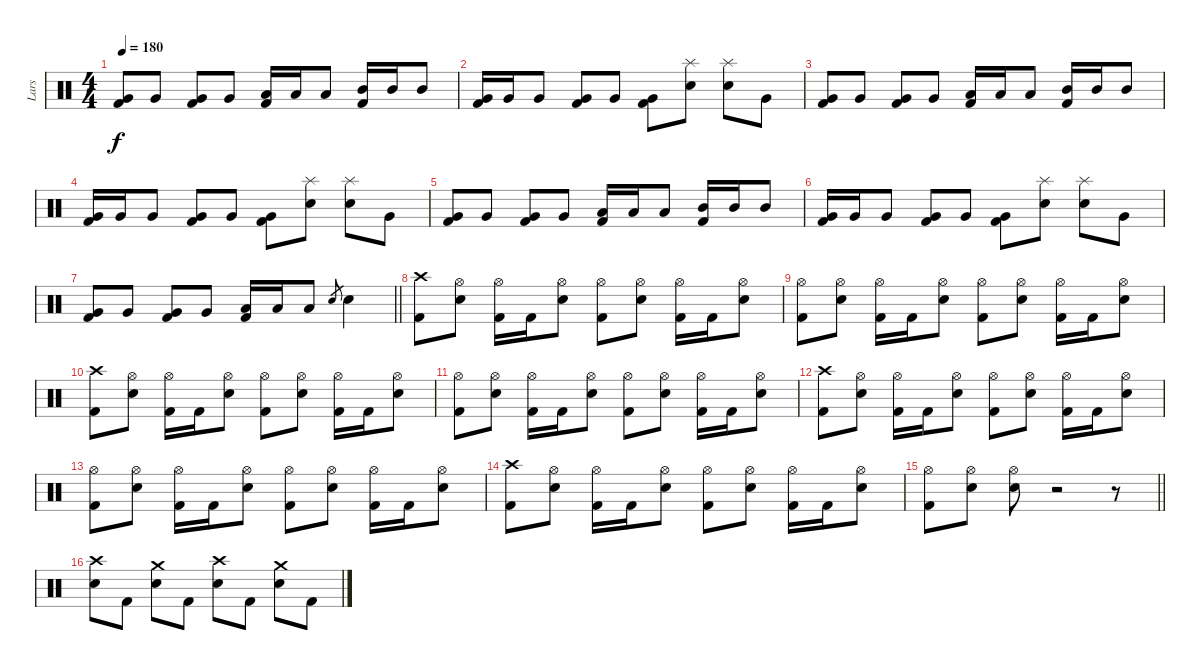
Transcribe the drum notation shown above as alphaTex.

\track ("Lars" "Lars") {instrument percussion}
\staff {score}
\articulation defaults
\ts (4 4)
\tempo 180
\clef neutral
\ks c
("Very Low Tom (hit)" "Kick (hit) 2").8{dy f} "Very Low Tom (hit)".8 ("Very Low Tom (hit)" "Kick (hit) 2").8 "Very Low Tom (hit)".8 ("Low Tom (hit)" "Kick (hit) 2").16 "Low Tom (hit)".16 "Low Tom (hit)".8 ("Mid Tom (hit)" "Kick (hit) 2").16 "Mid Tom (hit)".16 "Mid Tom (hit)".8 |
("Very Low Tom (hit)" "Kick (hit) 2").16 "Very Low Tom (hit)".16 "Very Low Tom (hit)".8 ("Very Low Tom (hit)" "Kick (hit) 2").8 "Very Low Tom (hit)".8 ("Very Low Tom (hit)" "Kick (hit) 2").8 ("Splash (hit)" "Electric Snare (hit)").8 ("Splash (hit)" "Electric Snare (hit)").8 "Very Low Tom (hit)".8 |
("Very Low Tom (hit)" "Kick (hit) 2").8 "Very Low Tom (hit)".8 ("Very Low Tom (hit)" "Kick (hit) 2").8 "Very Low Tom (hit)".8 ("Low Tom (hit)" "Kick (hit) 2").16 "Low Tom (hit)".16 "Low Tom (hit)".8 ("Mid Tom (hit)" "Kick (hit) 2").16 "Mid Tom (hit)".16 "Mid Tom (hit)".8 |
("Very Low Tom (hit)" "Kick (hit) 2").16 "Very Low Tom (hit)".16 "Very Low Tom (hit)".8 ("Very Low Tom (hit)" "Kick (hit) 2").8 "Very Low Tom (hit)".8 ("Very Low Tom (hit)" "Kick (hit) 2").8 ("Splash (hit)" "Electric Snare (hit)").8 ("Splash (hit)" "Electric Snare (hit)").8 "Very Low Tom (hit)".8 |
("Very Low Tom (hit)" "Kick (hit) 2").8 "Very Low Tom (hit)".8 ("Very Low Tom (hit)" "Kick (hit) 2").8 "Very Low Tom (hit)".8 ("Low Tom (hit)" "Kick (hit) 2").16 "Low Tom (hit)".16 "Low Tom (hit)".8 ("Mid Tom (hit)" "Kick (hit) 2").16 "Mid Tom (hit)".16 "Mid Tom (hit)".8 |
("Very Low Tom (hit)" "Kick (hit) 2").16 "Very Low Tom (hit)".16 "Very Low Tom (hit)".8 ("Very Low Tom (hit)" "Kick (hit) 2").8 "Very Low Tom (hit)".8 ("Very Low Tom (hit)" "Kick (hit) 2").8 ("Splash (hit)" "Electric Snare (hit)").8 ("Splash (hit)" "Electric Snare (hit)").8 "Very Low Tom (hit)".8 |
\barLineRight lightlight
("Very Low Tom (hit)" "Kick (hit) 2").8 "Very Low Tom (hit)".8 ("Very Low Tom (hit)" "Kick (hit) 2").8 "Very Low Tom (hit)".8 ("Low Tom (hit)" "Kick (hit) 2").16 "Low Tom (hit)".16 "Low Tom (hit)".8 "Electric Snare (hit)".8{gr} "Electric Snare (hit)".4 |
\section ("" "")
("Crash high (hit)" "Kick (hit) 2").8 ("Hi-Hat (open)" "Electric Snare (hit)").8 ("Hi-Hat (open)" "Kick (hit) 2").16 "Kick (hit) 2".16 ("Hi-Hat (open)" "Electric Snare (hit)").8 ("Hi-Hat (open)" "Kick (hit) 2").8 ("Hi-Hat (open)" "Electric Snare (hit)").8 ("Hi-Hat (open)" "Kick (hit) 2").16 "Kick (hit) 2".16 ("Hi-Hat (open)" "Electric Snare (hit)").8 |
("Hi-Hat (open)" "Kick (hit) 2").8 ("Hi-Hat (open)" "Electric Snare (hit)").8 ("Hi-Hat (open)" "Kick (hit) 2").16 "Kick (hit) 2".16 ("Hi-Hat (open)" "Electric Snare (hit)").8 ("Hi-Hat (open)" "Kick (hit) 2").8 ("Hi-Hat (open)" "Electric Snare (hit)").8 ("Hi-Hat (open)" "Kick (hit) 2").16 "Kick (hit) 2".16 ("Hi-Hat (open)" "Electric Snare (hit)").8 |
("Crash high (hit)" "Kick (hit) 2").8 ("Hi-Hat (open)" "Electric Snare (hit)").8 ("Hi-Hat (open)" "Kick (hit) 2").16 "Kick (hit) 2".16 ("Hi-Hat (open)" "Electric Snare (hit)").8 ("Hi-Hat (open)" "Kick (hit) 2").8 ("Hi-Hat (open)" "Electric Snare (hit)").8 ("Hi-Hat (open)" "Kick (hit) 2").16 "Kick (hit) 2".16 ("Hi-Hat (open)" "Electric Snare (hit)").8 |
("Hi-Hat (open)" "Kick (hit) 2").8 ("Hi-Hat (open)" "Electric Snare (hit)").8 ("Hi-Hat (open)" "Kick (hit) 2").16 "Kick (hit) 2".16 ("Hi-Hat (open)" "Electric Snare (hit)").8 ("Hi-Hat (open)" "Kick (hit) 2").8 ("Hi-Hat (open)" "Electric Snare (hit)").8 ("Hi-Hat (open)" "Kick (hit) 2").16 "Kick (hit) 2".16 ("Hi-Hat (open)" "Electric Snare (hit)").8 |
("Crash high (hit)" "Kick (hit) 2").8 ("Hi-Hat (open)" "Electric Snare (hit)").8 ("Hi-Hat (open)" "Kick (hit) 2").16 "Kick (hit) 2".16 ("Hi-Hat (open)" "Electric Snare (hit)").8 ("Hi-Hat (open)" "Kick (hit) 2").8 ("Hi-Hat (open)" "Electric Snare (hit)").8 ("Hi-Hat (open)" "Kick (hit) 2").16 "Kick (hit) 2".16 ("Hi-Hat (open)" "Electric Snare (hit)").8 |
("Hi-Hat (open)" "Kick (hit) 2").8 ("Hi-Hat (open)" "Electric Snare (hit)").8 ("Hi-Hat (open)" "Kick (hit) 2").16 "Kick (hit) 2".16 ("Hi-Hat (open)" "Electric Snare (hit)").8 ("Hi-Hat (open)" "Kick (hit) 2").8 ("Hi-Hat (open)" "Electric Snare (hit)").8 ("Hi-Hat (open)" "Kick (hit) 2").16 "Kick (hit) 2".16 ("Hi-Hat (open)" "Electric Snare (hit)").8 |
("Crash high (hit)" "Kick (hit) 2").8 ("Hi-Hat (open)" "Electric Snare (hit)").8 ("Hi-Hat (open)" "Kick (hit) 2").16 "Kick (hit) 2".16 ("Hi-Hat (open)" "Electric Snare (hit)").8 ("Hi-Hat (open)" "Kick (hit) 2").8 ("Hi-Hat (open)" "Electric Snare (hit)").8 ("Hi-Hat (open)" "Kick (hit) 2").16 "Kick (hit) 2".16 ("Hi-Hat (open)" "Electric Snare (hit)").8 |
\barLineRight lightlight
("Hi-Hat (open)" "Kick (hit) 2").8 ("Hi-Hat (open)" "Electric Snare (hit)").8 ("Hi-Hat (open)" "Electric Snare (hit)").8 r.2 r.8 |
\section ("" "")
("Crash high (hit)" "Electric Snare (hit)").8 "Kick (hit) 2".8 ("Crash medium (hit)" "Electric Snare (hit)").8 "Kick (hit) 2".8 ("Crash high (hit)" "Electric Snare (hit)").8 "Kick (hit) 2".8 ("Crash medium (hit)" "Electric Snare (hit)").8 "Kick (hit) 2".8
